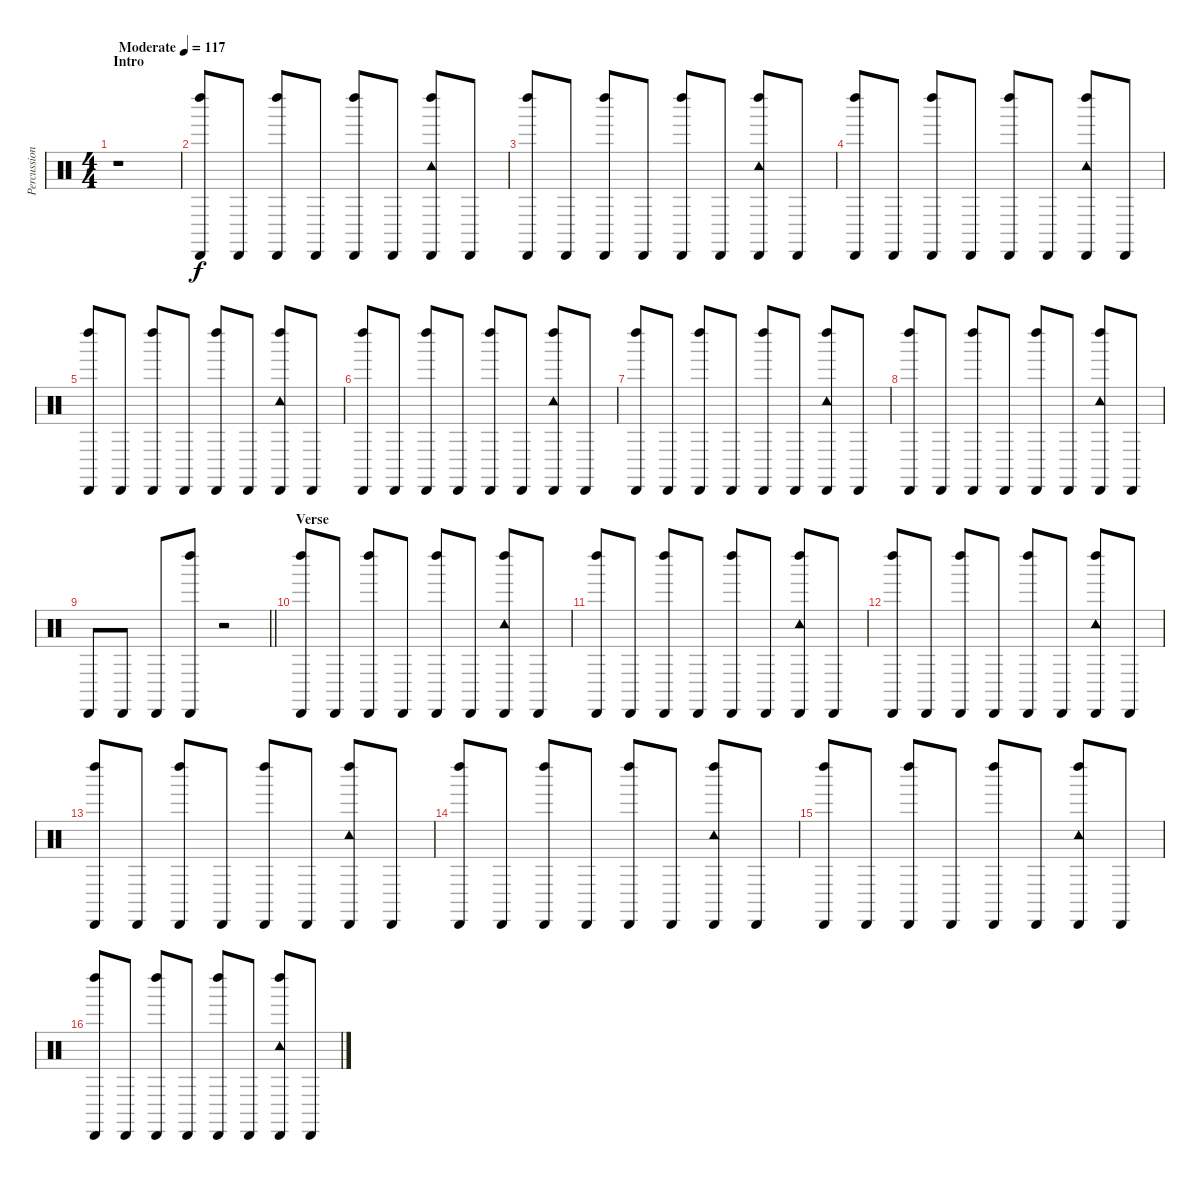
\track ("Percussion" "Percussion") {instrument percussion}
\staff {score}
\articulation defaults
\ts (4 4)
\section ("" "Intro")
\tempo (117 "Moderate")
\clef neutral
\ks c
r.1{dy f} |
("Cabasa (hit)" "Left Maraca (hit)").8 "Cabasa (hit)".8 ("Cabasa (hit)" "Left Maraca (hit)").8 "Cabasa (hit)".8 ("Cabasa (hit)" "Left Maraca (hit)").8 "Cabasa (hit)".8 ("Cabasa (hit)" "Left Maraca (hit)" "Tambourine (hit)").8 "Cabasa (hit)".8 |
("Cabasa (hit)" "Left Maraca (hit)").8 "Cabasa (hit)".8 ("Cabasa (hit)" "Left Maraca (hit)").8 "Cabasa (hit)".8 ("Cabasa (hit)" "Left Maraca (hit)").8 "Cabasa (hit)".8 ("Cabasa (hit)" "Left Maraca (hit)" "Tambourine (hit)").8 "Cabasa (hit)".8 |
("Cabasa (hit)" "Left Maraca (hit)").8 "Cabasa (hit)".8 ("Cabasa (hit)" "Left Maraca (hit)").8 "Cabasa (hit)".8 ("Cabasa (hit)" "Left Maraca (hit)").8 "Cabasa (hit)".8 ("Cabasa (hit)" "Left Maraca (hit)" "Tambourine (hit)").8 "Cabasa (hit)".8 |
("Cabasa (hit)" "Left Maraca (hit)").8 "Cabasa (hit)".8 ("Cabasa (hit)" "Left Maraca (hit)").8 "Cabasa (hit)".8 ("Cabasa (hit)" "Left Maraca (hit)").8 "Cabasa (hit)".8 ("Cabasa (hit)" "Left Maraca (hit)" "Tambourine (hit)").8 "Cabasa (hit)".8 |
("Cabasa (hit)" "Left Maraca (hit)").8 "Cabasa (hit)".8 ("Cabasa (hit)" "Left Maraca (hit)").8 "Cabasa (hit)".8 ("Cabasa (hit)" "Left Maraca (hit)").8 "Cabasa (hit)".8 ("Cabasa (hit)" "Left Maraca (hit)" "Tambourine (hit)").8 "Cabasa (hit)".8 |
("Cabasa (hit)" "Left Maraca (hit)").8 "Cabasa (hit)".8 ("Cabasa (hit)" "Left Maraca (hit)").8 "Cabasa (hit)".8 ("Cabasa (hit)" "Left Maraca (hit)").8 "Cabasa (hit)".8 ("Cabasa (hit)" "Left Maraca (hit)" "Tambourine (hit)").8 "Cabasa (hit)".8 |
("Cabasa (hit)" "Left Maraca (hit)").8 "Cabasa (hit)".8 ("Cabasa (hit)" "Left Maraca (hit)").8 "Cabasa (hit)".8 ("Cabasa (hit)" "Left Maraca (hit)").8 "Cabasa (hit)".8 ("Cabasa (hit)" "Left Maraca (hit)" "Tambourine (hit)").8 "Cabasa (hit)".8 |
\barLineRight lightlight "Cabasa (hit)".8 "Cabasa (hit)".8 "Cabasa (hit)".8
("Cabasa (hit)" "Left Maraca (hit)").8 r.2 |
\section ("" "Verse")
("Cabasa (hit)" "Left Maraca (hit)").8 "Cabasa (hit)".8 ("Cabasa (hit)" "Left Maraca (hit)").8 "Cabasa (hit)".8 ("Cabasa (hit)" "Left Maraca (hit)").8 "Cabasa (hit)".8 ("Cabasa (hit)" "Left Maraca (hit)" "Tambourine (hit)").8 "Cabasa (hit)".8 |
("Cabasa (hit)" "Left Maraca (hit)").8 "Cabasa (hit)".8 ("Cabasa (hit)" "Left Maraca (hit)").8 "Cabasa (hit)".8 ("Cabasa (hit)" "Left Maraca (hit)").8 "Cabasa (hit)".8 ("Cabasa (hit)" "Left Maraca (hit)" "Tambourine (hit)").8 "Cabasa (hit)".8 |
("Cabasa (hit)" "Left Maraca (hit)").8 "Cabasa (hit)".8 ("Cabasa (hit)" "Left Maraca (hit)").8 "Cabasa (hit)".8 ("Cabasa (hit)" "Left Maraca (hit)").8 "Cabasa (hit)".8 ("Cabasa (hit)" "Left Maraca (hit)" "Tambourine (hit)").8 "Cabasa (hit)".8 |
("Cabasa (hit)" "Left Maraca (hit)").8 "Cabasa (hit)".8 ("Cabasa (hit)" "Left Maraca (hit)").8 "Cabasa (hit)".8 ("Cabasa (hit)" "Left Maraca (hit)").8 "Cabasa (hit)".8 ("Cabasa (hit)" "Left Maraca (hit)" "Tambourine (hit)").8 "Cabasa (hit)".8 |
("Cabasa (hit)" "Left Maraca (hit)").8 "Cabasa (hit)".8 ("Cabasa (hit)" "Left Maraca (hit)").8 "Cabasa (hit)".8 ("Cabasa (hit)" "Left Maraca (hit)").8 "Cabasa (hit)".8 ("Cabasa (hit)" "Left Maraca (hit)" "Tambourine (hit)").8 "Cabasa (hit)".8 |
("Cabasa (hit)" "Left Maraca (hit)").8 "Cabasa (hit)".8 ("Cabasa (hit)" "Left Maraca (hit)").8 "Cabasa (hit)".8 ("Cabasa (hit)" "Left Maraca (hit)").8 "Cabasa (hit)".8 ("Cabasa (hit)" "Left Maraca (hit)" "Tambourine (hit)").8 "Cabasa (hit)".8 |
("Cabasa (hit)" "Left Maraca (hit)").8 "Cabasa (hit)".8 ("Cabasa (hit)" "Left Maraca (hit)").8 "Cabasa (hit)".8 ("Cabasa (hit)" "Left Maraca (hit)").8 "Cabasa (hit)".8 ("Cabasa (hit)" "Left Maraca (hit)" "Tambourine (hit)").8 "Cabasa (hit)".8
